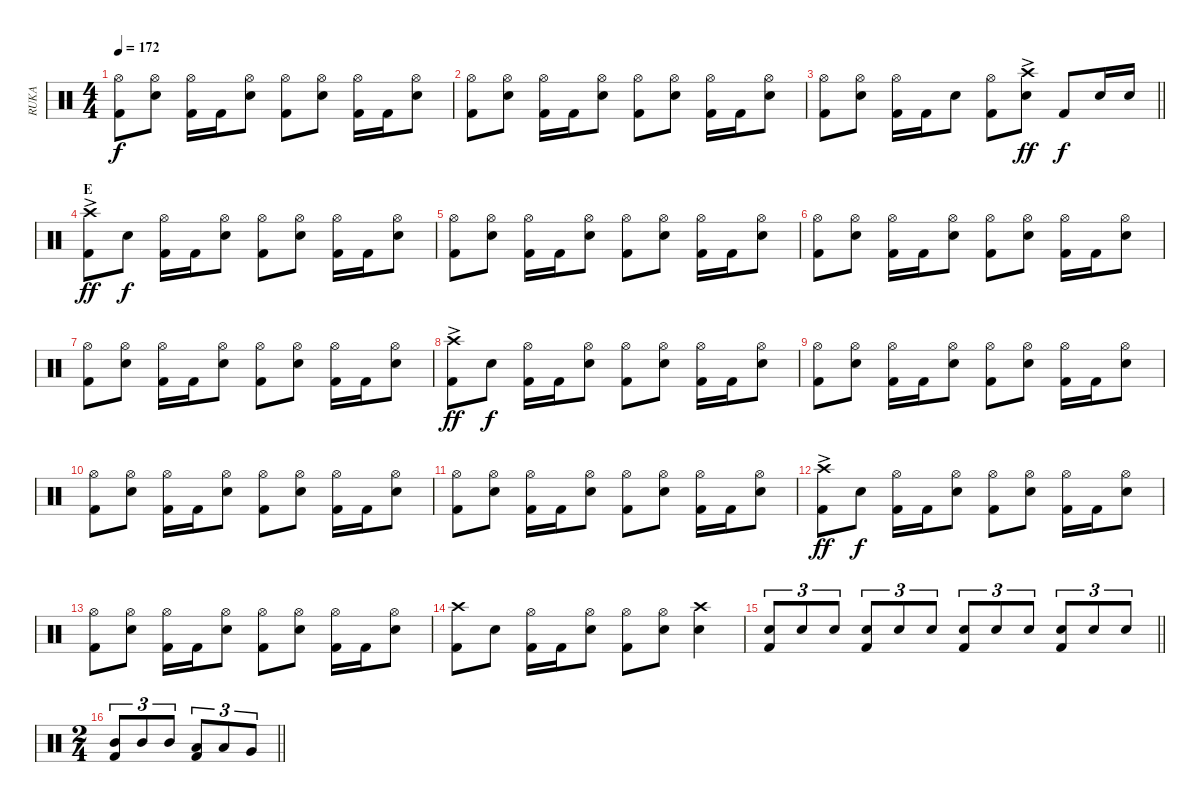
\track ("RUKA" "RUKA") {instrument percussion}
\staff {score}
\articulation defaults
\ts (4 4)
\tempo 172
\clef neutral
\ks c
("Hi-Hat (open)" "Kick (hit) 2").8{dy f} ("Hi-Hat (open)" "Snare (hit) 2").8 ("Hi-Hat (open)" "Kick (hit) 2").16 "Kick (hit) 2".16 ("Hi-Hat (open)" "Snare (hit) 2").8 ("Hi-Hat (open)" "Kick (hit) 2").8 ("Hi-Hat (open)" "Snare (hit) 2").8 ("Hi-Hat (open)" "Kick (hit) 2").16 "Kick (hit) 2".16 ("Hi-Hat (open)" "Snare (hit) 2").8 |
("Hi-Hat (open)" "Kick (hit) 2").8 ("Hi-Hat (open)" "Snare (hit) 2").8 ("Hi-Hat (open)" "Kick (hit) 2").16 "Kick (hit) 2".16 ("Hi-Hat (open)" "Snare (hit) 2").8 ("Hi-Hat (open)" "Kick (hit) 2").8 ("Hi-Hat (open)" "Snare (hit) 2").8 ("Hi-Hat (open)" "Kick (hit) 2").16 "Kick (hit) 2".16 ("Hi-Hat (open)" "Snare (hit) 2").8 |
\barLineRight lightlight
("Hi-Hat (open)" "Kick (hit) 2").8 ("Hi-Hat (open)" "Snare (hit) 2").8 ("Hi-Hat (open)" "Kick (hit) 2").16 "Kick (hit) 2".16 "Snare (hit) 2".8 ("Hi-Hat (open)" "Kick (hit) 2").8 ("Crash high (hit)"{ac} "Snare (hit) 2").8{dy ff} "Kick (hit) 2".8{dy f} "Snare (hit) 2".16 "Snare (hit) 2".16 |
\section ("" "E")
("Crash high (hit)"{ac} "Kick (hit) 2").8{dy ff} "Snare (hit) 2".8{dy f} ("Hi-Hat (open)" "Kick (hit) 2").16 "Kick (hit) 2".16 ("Hi-Hat (open)" "Snare (hit) 2").8 ("Hi-Hat (open)" "Kick (hit) 2").8 ("Hi-Hat (open)" "Snare (hit) 2").8 ("Hi-Hat (open)" "Kick (hit) 2").16 "Kick (hit) 2".16 ("Hi-Hat (open)" "Snare (hit) 2").8 |
("Hi-Hat (open)" "Kick (hit) 2").8 ("Hi-Hat (open)" "Snare (hit) 2").8 ("Hi-Hat (open)" "Kick (hit) 2").16 "Kick (hit) 2".16 ("Hi-Hat (open)" "Snare (hit) 2").8 ("Hi-Hat (open)" "Kick (hit) 2").8 ("Hi-Hat (open)" "Snare (hit) 2").8 ("Hi-Hat (open)" "Kick (hit) 2").16 "Kick (hit) 2".16 ("Hi-Hat (open)" "Snare (hit) 2").8 |
("Hi-Hat (open)" "Kick (hit) 2").8 ("Hi-Hat (open)" "Snare (hit) 2").8 ("Hi-Hat (open)" "Kick (hit) 2").16 "Kick (hit) 2".16 ("Hi-Hat (open)" "Snare (hit) 2").8 ("Hi-Hat (open)" "Kick (hit) 2").8 ("Hi-Hat (open)" "Snare (hit) 2").8 ("Hi-Hat (open)" "Kick (hit) 2").16 "Kick (hit) 2".16 ("Hi-Hat (open)" "Snare (hit) 2").8 |
("Hi-Hat (open)" "Kick (hit) 2").8 ("Hi-Hat (open)" "Snare (hit) 2").8 ("Hi-Hat (open)" "Kick (hit) 2").16 "Kick (hit) 2".16 ("Hi-Hat (open)" "Snare (hit) 2").8 ("Hi-Hat (open)" "Kick (hit) 2").8 ("Hi-Hat (open)" "Snare (hit) 2").8 ("Hi-Hat (open)" "Kick (hit) 2").16 "Kick (hit) 2".16 ("Hi-Hat (open)" "Snare (hit) 2").8 |
("Crash high (hit)"{ac} "Kick (hit) 2").8{dy ff} "Snare (hit) 2".8{dy f} ("Hi-Hat (open)" "Kick (hit) 2").16 "Kick (hit) 2".16 ("Hi-Hat (open)" "Snare (hit) 2").8 ("Hi-Hat (open)" "Kick (hit) 2").8 ("Hi-Hat (open)" "Snare (hit) 2").8 ("Hi-Hat (open)" "Kick (hit) 2").16 "Kick (hit) 2".16 ("Hi-Hat (open)" "Snare (hit) 2").8 |
("Hi-Hat (open)" "Kick (hit) 2").8 ("Hi-Hat (open)" "Snare (hit) 2").8 ("Hi-Hat (open)" "Kick (hit) 2").16 "Kick (hit) 2".16 ("Hi-Hat (open)" "Snare (hit) 2").8 ("Hi-Hat (open)" "Kick (hit) 2").8 ("Hi-Hat (open)" "Snare (hit) 2").8 ("Hi-Hat (open)" "Kick (hit) 2").16 "Kick (hit) 2".16 ("Hi-Hat (open)" "Snare (hit) 2").8 |
("Hi-Hat (open)" "Kick (hit) 2").8 ("Hi-Hat (open)" "Snare (hit) 2").8 ("Hi-Hat (open)" "Kick (hit) 2").16 "Kick (hit) 2".16 ("Hi-Hat (open)" "Snare (hit) 2").8 ("Hi-Hat (open)" "Kick (hit) 2").8 ("Hi-Hat (open)" "Snare (hit) 2").8 ("Hi-Hat (open)" "Kick (hit) 2").16 "Kick (hit) 2".16 ("Hi-Hat (open)" "Snare (hit) 2").8 |
("Hi-Hat (open)" "Kick (hit) 2").8 ("Hi-Hat (open)" "Snare (hit) 2").8 ("Hi-Hat (open)" "Kick (hit) 2").16 "Kick (hit) 2".16 ("Hi-Hat (open)" "Snare (hit) 2").8 ("Hi-Hat (open)" "Kick (hit) 2").8 ("Hi-Hat (open)" "Snare (hit) 2").8 ("Hi-Hat (open)" "Kick (hit) 2").16 "Kick (hit) 2".16 ("Hi-Hat (open)" "Snare (hit) 2").8 |
("Crash high (hit)"{ac} "Kick (hit) 2").8{dy ff} "Snare (hit) 2".8{dy f} ("Hi-Hat (open)" "Kick (hit) 2").16 "Kick (hit) 2".16 ("Hi-Hat (open)" "Snare (hit) 2").8 ("Hi-Hat (open)" "Kick (hit) 2").8 ("Hi-Hat (open)" "Snare (hit) 2").8 ("Hi-Hat (open)" "Kick (hit) 2").16 "Kick (hit) 2".16 ("Hi-Hat (open)" "Snare (hit) 2").8 |
("Hi-Hat (open)" "Kick (hit) 2").8 ("Hi-Hat (open)" "Snare (hit) 2").8 ("Hi-Hat (open)" "Kick (hit) 2").16 "Kick (hit) 2".16 ("Hi-Hat (open)" "Snare (hit) 2").8 ("Hi-Hat (open)" "Kick (hit) 2").8 ("Hi-Hat (open)" "Snare (hit) 2").8 ("Hi-Hat (open)" "Kick (hit) 2").16 "Kick (hit) 2".16 ("Hi-Hat (open)" "Snare (hit) 2").8 |
("Crash high (hit)" "Kick (hit) 2").8 "Snare (hit) 2".8 ("Hi-Hat (open)" "Kick (hit) 2").16 "Kick (hit) 2".16 ("Hi-Hat (open)" "Snare (hit) 2").8 ("Hi-Hat (open)" "Kick (hit) 2").8 ("Hi-Hat (open)" "Snare (hit) 2").8 ("Crash high (hit)" "Snare (hit) 2").4 |
\barLineRight lightlight
("Snare (hit) 2" "Kick (hit) 2").8{tu (3 2)} "Snare (hit) 2".8{tu (3 2)} "Snare (hit) 2".8{tu (3 2)} ("Snare (hit) 2" "Kick (hit) 2").8{tu (3 2)} "Snare (hit) 2".8{tu (3 2)} "Snare (hit) 2".8{tu (3 2)} ("Snare (hit) 2" "Kick (hit) 2").8{tu (3 2)} "Snare (hit) 2".8{tu (3 2)} "Snare (hit) 2".8{tu (3 2)} ("Snare (hit) 2" "Kick (hit) 2").8{tu (3 2)} "Snare (hit) 2".8{tu (3 2)} "Snare (hit) 2".8{tu (3 2)} |
\ts (2 4)
\barLineRight lightlight
("Mid Tom (hit)" "Kick (hit) 2").8{tu (3 2)} "Mid Tom (hit)".8{tu (3 2)} "Mid Tom (hit)".8{tu (3 2)} ("Low Tom (hit)" "Kick (hit) 2").8{tu (3 2)} "Low Tom (hit)".8{tu (3 2)} "Very Low Tom (hit)".8{tu (3 2)}
